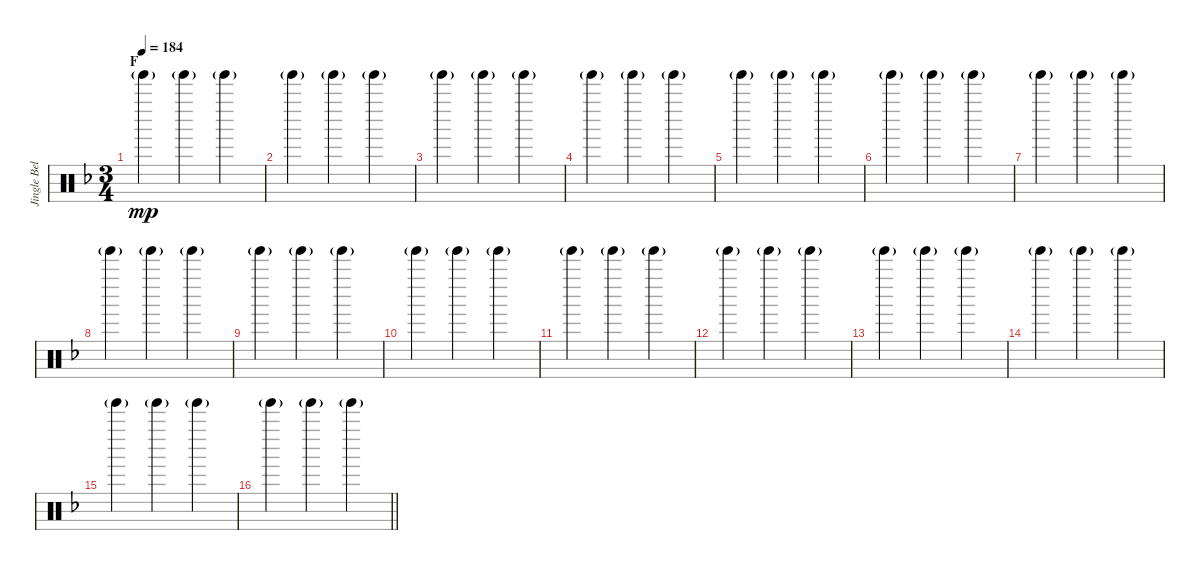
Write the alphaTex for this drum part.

\track ("Jingle Bells" "Jingle Bel") {instrument percussion}
\staff {score}
\articulation defaults
\ts (3 4)
\section ("" "F")
\tempo 184
\clef neutral
\ks f "Tinkle Bell (hit)"{g}.4{dy mp} "Tinkle Bell (hit)"{g}.4 "Tinkle Bell (hit)"{g}.4
|
"Tinkle Bell (hit)"{g}.4 "Tinkle Bell (hit)"{g}.4 "Tinkle Bell (hit)"{g}.4 |
"Tinkle Bell (hit)"{g}.4 "Tinkle Bell (hit)"{g}.4 "Tinkle Bell (hit)"{g}.4 |
"Tinkle Bell (hit)"{g}.4 "Tinkle Bell (hit)"{g}.4 "Tinkle Bell (hit)"{g}.4 |
"Tinkle Bell (hit)"{g}.4 "Tinkle Bell (hit)"{g}.4 "Tinkle Bell (hit)"{g}.4 |
"Tinkle Bell (hit)"{g}.4 "Tinkle Bell (hit)"{g}.4 "Tinkle Bell (hit)"{g}.4 |
"Tinkle Bell (hit)"{g}.4 "Tinkle Bell (hit)"{g}.4 "Tinkle Bell (hit)"{g}.4 |
"Tinkle Bell (hit)"{g}.4 "Tinkle Bell (hit)"{g}.4 "Tinkle Bell (hit)"{g}.4 |
"Tinkle Bell (hit)"{g}.4 "Tinkle Bell (hit)"{g}.4 "Tinkle Bell (hit)"{g}.4 |
"Tinkle Bell (hit)"{g}.4 "Tinkle Bell (hit)"{g}.4 "Tinkle Bell (hit)"{g}.4 |
"Tinkle Bell (hit)"{g}.4 "Tinkle Bell (hit)"{g}.4 "Tinkle Bell (hit)"{g}.4 |
"Tinkle Bell (hit)"{g}.4 "Tinkle Bell (hit)"{g}.4 "Tinkle Bell (hit)"{g}.4 |
"Tinkle Bell (hit)"{g}.4 "Tinkle Bell (hit)"{g}.4 "Tinkle Bell (hit)"{g}.4 |
"Tinkle Bell (hit)"{g}.4 "Tinkle Bell (hit)"{g}.4 "Tinkle Bell (hit)"{g}.4 |
"Tinkle Bell (hit)"{g}.4 "Tinkle Bell (hit)"{g}.4 "Tinkle Bell (hit)"{g}.4 |
\barLineRight lightlight "Tinkle Bell (hit)"{g}.4 "Tinkle Bell (hit)"{g}.4 "Tinkle Bell (hit)"{g}.4
